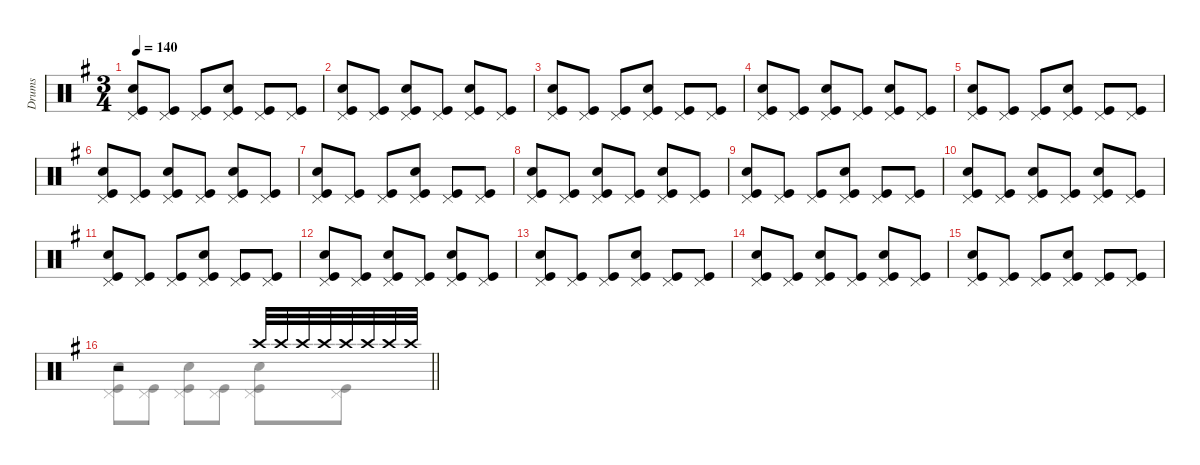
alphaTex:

\defaultSystemsLayout 8
\hideDynamics
\bracketExtendMode groupsimilarinstruments
\firstSystemTrackNameMode fullname
\otherSystemsTrackNameOrientation horizontal
\track ("Drums" "drm.") {defaultSystemsLayout 4 instrument percussion}
\staff {score}
\articulation defaults
\voice
\ts (3 4)
\tempo 140
\clef neutral
\ks g
("Snare (hit) 2"{acc forcenatural} "Kick (hit)"{acc forcenatural} "Pedal Hi-Hat (hit)"{acc forcenatural}).8{dy f beam Up} ("Kick (hit)"{acc forcenatural} "Pedal Hi-Hat (hit)"{acc forcenatural}).8{beam Up} ("Kick (hit)"{acc forcenatural} "Pedal Hi-Hat (hit)"{acc forcenatural}).8{beam Up} ("Snare (hit) 2"{acc forcenatural} "Kick (hit)"{acc forcenatural} "Pedal Hi-Hat (hit)"{acc forcenatural}).8{beam Up} ("Kick (hit)"{acc forcenatural} "Pedal Hi-Hat (hit)"{acc forcenatural}).8{beam Up} ("Kick (hit)"{acc forcenatural} "Pedal Hi-Hat (hit)"{acc forcenatural}).8{beam Up} |
("Snare (hit) 2"{acc forcenatural} "Kick (hit)"{acc forcenatural} "Pedal Hi-Hat (hit)"{acc forcenatural}).8{beam Up} ("Kick (hit)"{acc forcenatural} "Pedal Hi-Hat (hit)"{acc forcenatural}).8{beam Up} ("Snare (hit) 2"{acc forcenatural} "Kick (hit)"{acc forcenatural} "Pedal Hi-Hat (hit)"{acc forcenatural}).8{beam Up} ("Kick (hit)"{acc forcenatural} "Pedal Hi-Hat (hit)"{acc forcenatural}).8{beam Up} ("Snare (hit) 2"{acc forcenatural} "Kick (hit)"{acc forcenatural} "Pedal Hi-Hat (hit)"{acc forcenatural}).8{beam Up} ("Kick (hit)"{acc forcenatural} "Pedal Hi-Hat (hit)"{acc forcenatural}).8{beam Up} |
("Snare (hit) 2"{acc forcenatural} "Kick (hit)"{acc forcenatural} "Pedal Hi-Hat (hit)"{acc forcenatural}).8{beam Up} ("Kick (hit)"{acc forcenatural} "Pedal Hi-Hat (hit)"{acc forcenatural}).8{beam Up} ("Kick (hit)"{acc forcenatural} "Pedal Hi-Hat (hit)"{acc forcenatural}).8{beam Up} ("Snare (hit) 2"{acc forcenatural} "Kick (hit)"{acc forcenatural} "Pedal Hi-Hat (hit)"{acc forcenatural}).8{beam Up} ("Kick (hit)"{acc forcenatural} "Pedal Hi-Hat (hit)"{acc forcenatural}).8{beam Up} ("Kick (hit)"{acc forcenatural} "Pedal Hi-Hat (hit)"{acc forcenatural}).8{beam Up} |
("Snare (hit) 2"{acc forcenatural} "Kick (hit)"{acc forcenatural} "Pedal Hi-Hat (hit)"{acc forcenatural}).8{beam Up} ("Kick (hit)"{acc forcenatural} "Pedal Hi-Hat (hit)"{acc forcenatural}).8{beam Up} ("Snare (hit) 2"{acc forcenatural} "Kick (hit)"{acc forcenatural} "Pedal Hi-Hat (hit)"{acc forcenatural}).8{beam Up} ("Kick (hit)"{acc forcenatural} "Pedal Hi-Hat (hit)"{acc forcenatural}).8{beam Up} ("Snare (hit) 2"{acc forcenatural} "Kick (hit)"{acc forcenatural} "Pedal Hi-Hat (hit)"{acc forcenatural}).8{beam Up} ("Kick (hit)"{acc forcenatural} "Pedal Hi-Hat (hit)"{acc forcenatural}).8{beam Up} |
("Snare (hit) 2"{acc forcenatural} "Kick (hit)"{acc forcenatural} "Pedal Hi-Hat (hit)"{acc forcenatural}).8{beam Up} ("Kick (hit)"{acc forcenatural} "Pedal Hi-Hat (hit)"{acc forcenatural}).8{beam Up} ("Kick (hit)"{acc forcenatural} "Pedal Hi-Hat (hit)"{acc forcenatural}).8{beam Up} ("Snare (hit) 2"{acc forcenatural} "Kick (hit)"{acc forcenatural} "Pedal Hi-Hat (hit)"{acc forcenatural}).8{beam Up} ("Kick (hit)"{acc forcenatural} "Pedal Hi-Hat (hit)"{acc forcenatural}).8{beam Up} ("Kick (hit)"{acc forcenatural} "Pedal Hi-Hat (hit)"{acc forcenatural}).8{beam Up} |
("Snare (hit) 2"{acc forcenatural} "Kick (hit)"{acc forcenatural} "Pedal Hi-Hat (hit)"{acc forcenatural}).8{beam Up} ("Kick (hit)"{acc forcenatural} "Pedal Hi-Hat (hit)"{acc forcenatural}).8{beam Up} ("Snare (hit) 2"{acc forcenatural} "Kick (hit)"{acc forcenatural} "Pedal Hi-Hat (hit)"{acc forcenatural}).8{beam Up} ("Kick (hit)"{acc forcenatural} "Pedal Hi-Hat (hit)"{acc forcenatural}).8{beam Up} ("Snare (hit) 2"{acc forcenatural} "Kick (hit)"{acc forcenatural} "Pedal Hi-Hat (hit)"{acc forcenatural}).8{beam Up} ("Kick (hit)"{acc forcenatural} "Pedal Hi-Hat (hit)"{acc forcenatural}).8{beam Up} |
("Snare (hit) 2"{acc forcenatural} "Kick (hit)"{acc forcenatural} "Pedal Hi-Hat (hit)"{acc forcenatural}).8{beam Up} ("Kick (hit)"{acc forcenatural} "Pedal Hi-Hat (hit)"{acc forcenatural}).8{beam Up} ("Kick (hit)"{acc forcenatural} "Pedal Hi-Hat (hit)"{acc forcenatural}).8{beam Up} ("Snare (hit) 2"{acc forcenatural} "Kick (hit)"{acc forcenatural} "Pedal Hi-Hat (hit)"{acc forcenatural}).8{beam Up} ("Kick (hit)"{acc forcenatural} "Pedal Hi-Hat (hit)"{acc forcenatural}).8{beam Up} ("Kick (hit)"{acc forcenatural} "Pedal Hi-Hat (hit)"{acc forcenatural}).8{beam Up} |
("Snare (hit) 2"{acc forcenatural} "Kick (hit)"{acc forcenatural} "Pedal Hi-Hat (hit)"{acc forcenatural}).8{beam Up} ("Kick (hit)"{acc forcenatural} "Pedal Hi-Hat (hit)"{acc forcenatural}).8{beam Up} ("Snare (hit) 2"{acc forcenatural} "Kick (hit)"{acc forcenatural} "Pedal Hi-Hat (hit)"{acc forcenatural}).8{beam Up} ("Kick (hit)"{acc forcenatural} "Pedal Hi-Hat (hit)"{acc forcenatural}).8{beam Up} ("Snare (hit) 2"{acc forcenatural} "Kick (hit)"{acc forcenatural} "Pedal Hi-Hat (hit)"{acc forcenatural}).8{beam Up} ("Kick (hit)"{acc forcenatural} "Pedal Hi-Hat (hit)"{acc forcenatural}).8{beam Up} |
("Snare (hit) 2"{acc forcenatural} "Kick (hit)"{acc forcenatural} "Pedal Hi-Hat (hit)"{acc forcenatural}).8{beam Up} ("Kick (hit)"{acc forcenatural} "Pedal Hi-Hat (hit)"{acc forcenatural}).8{beam Up} ("Kick (hit)"{acc forcenatural} "Pedal Hi-Hat (hit)"{acc forcenatural}).8{beam Up} ("Snare (hit) 2"{acc forcenatural} "Kick (hit)"{acc forcenatural} "Pedal Hi-Hat (hit)"{acc forcenatural}).8{beam Up} ("Kick (hit)"{acc forcenatural} "Pedal Hi-Hat (hit)"{acc forcenatural}).8{beam Up} ("Kick (hit)"{acc forcenatural} "Pedal Hi-Hat (hit)"{acc forcenatural}).8{beam Up} |
("Snare (hit) 2"{acc forcenatural} "Kick (hit)"{acc forcenatural} "Pedal Hi-Hat (hit)"{acc forcenatural}).8{beam Up} ("Kick (hit)"{acc forcenatural} "Pedal Hi-Hat (hit)"{acc forcenatural}).8{beam Up} ("Snare (hit) 2"{acc forcenatural} "Kick (hit)"{acc forcenatural} "Pedal Hi-Hat (hit)"{acc forcenatural}).8{beam Up} ("Kick (hit)"{acc forcenatural} "Pedal Hi-Hat (hit)"{acc forcenatural}).8{beam Up} ("Snare (hit) 2"{acc forcenatural} "Kick (hit)"{acc forcenatural} "Pedal Hi-Hat (hit)"{acc forcenatural}).8{beam Up} ("Kick (hit)"{acc forcenatural} "Pedal Hi-Hat (hit)"{acc forcenatural}).8{beam Up} |
("Snare (hit) 2"{acc forcenatural} "Kick (hit)"{acc forcenatural} "Pedal Hi-Hat (hit)"{acc forcenatural}).8{beam Up} ("Kick (hit)"{acc forcenatural} "Pedal Hi-Hat (hit)"{acc forcenatural}).8{beam Up} ("Kick (hit)"{acc forcenatural} "Pedal Hi-Hat (hit)"{acc forcenatural}).8{beam Up} ("Snare (hit) 2"{acc forcenatural} "Kick (hit)"{acc forcenatural} "Pedal Hi-Hat (hit)"{acc forcenatural}).8{beam Up} ("Kick (hit)"{acc forcenatural} "Pedal Hi-Hat (hit)"{acc forcenatural}).8{beam Up} ("Kick (hit)"{acc forcenatural} "Pedal Hi-Hat (hit)"{acc forcenatural}).8{beam Up} |
("Snare (hit) 2"{acc forcenatural} "Kick (hit)"{acc forcenatural} "Pedal Hi-Hat (hit)"{acc forcenatural}).8{beam Up} ("Kick (hit)"{acc forcenatural} "Pedal Hi-Hat (hit)"{acc forcenatural}).8{beam Up} ("Snare (hit) 2"{acc forcenatural} "Kick (hit)"{acc forcenatural} "Pedal Hi-Hat (hit)"{acc forcenatural}).8{beam Up} ("Kick (hit)"{acc forcenatural} "Pedal Hi-Hat (hit)"{acc forcenatural}).8{beam Up} ("Snare (hit) 2"{acc forcenatural} "Kick (hit)"{acc forcenatural} "Pedal Hi-Hat (hit)"{acc forcenatural}).8{beam Up} ("Kick (hit)"{acc forcenatural} "Pedal Hi-Hat (hit)"{acc forcenatural}).8{beam Up} |
("Snare (hit) 2"{acc forcenatural} "Kick (hit)"{acc forcenatural} "Pedal Hi-Hat (hit)"{acc forcenatural}).8{beam Up} ("Kick (hit)"{acc forcenatural} "Pedal Hi-Hat (hit)"{acc forcenatural}).8{beam Up} ("Kick (hit)"{acc forcenatural} "Pedal Hi-Hat (hit)"{acc forcenatural}).8{beam Up} ("Snare (hit) 2"{acc forcenatural} "Kick (hit)"{acc forcenatural} "Pedal Hi-Hat (hit)"{acc forcenatural}).8{beam Up} ("Kick (hit)"{acc forcenatural} "Pedal Hi-Hat (hit)"{acc forcenatural}).8{beam Up} ("Kick (hit)"{acc forcenatural} "Pedal Hi-Hat (hit)"{acc forcenatural}).8{beam Up} |
("Snare (hit) 2"{acc forcenatural} "Kick (hit)"{acc forcenatural} "Pedal Hi-Hat (hit)"{acc forcenatural}).8{beam Up} ("Kick (hit)"{acc forcenatural} "Pedal Hi-Hat (hit)"{acc forcenatural}).8{beam Up} ("Snare (hit) 2"{acc forcenatural} "Kick (hit)"{acc forcenatural} "Pedal Hi-Hat (hit)"{acc forcenatural}).8{beam Up} ("Kick (hit)"{acc forcenatural} "Pedal Hi-Hat (hit)"{acc forcenatural}).8{beam Up} ("Snare (hit) 2"{acc forcenatural} "Kick (hit)"{acc forcenatural} "Pedal Hi-Hat (hit)"{acc forcenatural}).8{beam Up} ("Kick (hit)"{acc forcenatural} "Pedal Hi-Hat (hit)"{acc forcenatural}).8{beam Up} |
("Snare (hit) 2"{acc forcenatural} "Kick (hit)"{acc forcenatural} "Pedal Hi-Hat (hit)"{acc forcenatural}).8{beam Up} ("Kick (hit)"{acc forcenatural} "Pedal Hi-Hat (hit)"{acc forcenatural}).8{beam Up} ("Kick (hit)"{acc forcenatural} "Pedal Hi-Hat (hit)"{acc forcenatural}).8{beam Up} ("Snare (hit) 2"{acc forcenatural} "Kick (hit)"{acc forcenatural} "Pedal Hi-Hat (hit)"{acc forcenatural}).8{beam Up} ("Kick (hit)"{acc forcenatural} "Pedal Hi-Hat (hit)"{acc forcenatural}).8{beam Up} ("Kick (hit)"{acc forcenatural} "Pedal Hi-Hat (hit)"{acc forcenatural}).8{beam Up} |
\barLineRight lightlight
r.2{beam Up} "Crash high (hit)"{acc forcenatural}.32{dy pp beam Up} "Crash high (hit)"{acc forcenatural}.32{beam Up} "Crash high (hit)"{acc forcenatural}.32{dy p beam Up} "Crash high (hit)"{acc forcenatural}.32{beam Up} "Crash high (hit)"{acc forcenatural}.32{dy mp beam Up} "Crash high (hit)"{acc forcenatural}.32{beam Up} "Crash high (hit)"{acc forcenatural}.32{dy mf beam Up} "Crash high (hit)"{acc forcenatural}.32{beam Up}
\voice
\clef neutral
\ottava regular
\simile none
\ks g
|
|
|
|
|
|
|
|
|
|
|
|
|
|
|
\barLineRight lightlight
("Snare (hit) 2"{acc forcenatural} "Kick (hit)"{acc forcenatural} "Pedal Hi-Hat (hit)"{acc forcenatural}).8{beam Down} ("Kick (hit)"{acc forcenatural} "Pedal Hi-Hat (hit)"{acc forcenatural}).8{beam Down} ("Snare (hit) 2"{acc forcenatural} "Kick (hit)"{acc forcenatural} "Pedal Hi-Hat (hit)"{acc forcenatural}).8{beam Down} ("Kick (hit)"{acc forcenatural} "Pedal Hi-Hat (hit)"{acc forcenatural}).8{beam Down} ("Snare (hit) 2"{acc forcenatural} "Kick (hit)"{acc forcenatural} "Pedal Hi-Hat (hit)"{acc forcenatural}).8{beam Down} ("Kick (hit)"{acc forcenatural} "Pedal Hi-Hat (hit)"{acc forcenatural}).8{beam Down}
